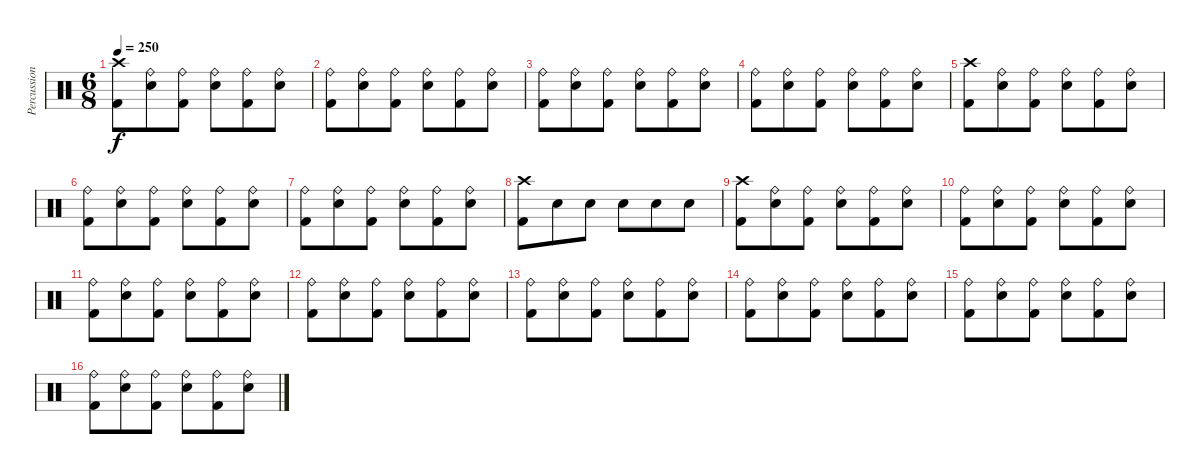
\track ("Percussion" "Percussion") {instrument percussion}
\staff {score}
\articulation defaults
\ts (6 8)
\tempo 250
\clef neutral
\ks c
("Crash high (hit)" "Kick (hit) 2").8{dy f} ("Ride (bell)" "Electric Snare (hit)").8 ("Ride (bell)" "Kick (hit) 2").8 ("Ride (bell)" "Electric Snare (hit)").8 ("Ride (bell)" "Kick (hit) 2").8 ("Ride (bell)" "Electric Snare (hit)").8 |
("Ride (bell)" "Kick (hit) 2").8 ("Ride (bell)" "Electric Snare (hit)").8 ("Ride (bell)" "Kick (hit) 2").8 ("Ride (bell)" "Electric Snare (hit)").8 ("Ride (bell)" "Kick (hit) 2").8 ("Ride (bell)" "Electric Snare (hit)").8 |
("Ride (bell)" "Kick (hit) 2").8 ("Ride (bell)" "Electric Snare (hit)").8 ("Ride (bell)" "Kick (hit) 2").8 ("Ride (bell)" "Electric Snare (hit)").8 ("Ride (bell)" "Kick (hit) 2").8 ("Ride (bell)" "Electric Snare (hit)").8 |
("Ride (bell)" "Kick (hit) 2").8 ("Ride (bell)" "Electric Snare (hit)").8 ("Ride (bell)" "Kick (hit) 2").8 ("Ride (bell)" "Electric Snare (hit)").8 ("Ride (bell)" "Kick (hit) 2").8 ("Ride (bell)" "Electric Snare (hit)").8 |
("Crash high (hit)" "Kick (hit) 2").8 ("Ride (bell)" "Electric Snare (hit)").8 ("Ride (bell)" "Kick (hit) 2").8 ("Ride (bell)" "Electric Snare (hit)").8 ("Ride (bell)" "Kick (hit) 2").8 ("Ride (bell)" "Electric Snare (hit)").8 |
("Ride (bell)" "Kick (hit) 2").8 ("Ride (bell)" "Electric Snare (hit)").8 ("Ride (bell)" "Kick (hit) 2").8 ("Ride (bell)" "Electric Snare (hit)").8 ("Ride (bell)" "Kick (hit) 2").8 ("Ride (bell)" "Electric Snare (hit)").8 |
("Ride (bell)" "Kick (hit) 2").8 ("Ride (bell)" "Electric Snare (hit)").8 ("Ride (bell)" "Kick (hit) 2").8 ("Ride (bell)" "Electric Snare (hit)").8 ("Ride (bell)" "Kick (hit) 2").8 ("Ride (bell)" "Electric Snare (hit)").8 |
("Crash high (hit)" "Kick (hit) 2").8 "Electric Snare (hit)".8 "Electric Snare (hit)".8 "Electric Snare (hit)".8 "Electric Snare (hit)".8 "Electric Snare (hit)".8 |
("Crash high (hit)" "Kick (hit) 2").8 ("Ride (bell)" "Electric Snare (hit)").8 ("Ride (bell)" "Kick (hit) 2").8 ("Ride (bell)" "Electric Snare (hit)").8 ("Ride (bell)" "Kick (hit) 2").8 ("Ride (bell)" "Electric Snare (hit)").8 |
("Ride (bell)" "Kick (hit) 2").8 ("Ride (bell)" "Electric Snare (hit)").8 ("Ride (bell)" "Kick (hit) 2").8 ("Ride (bell)" "Electric Snare (hit)").8 ("Ride (bell)" "Kick (hit) 2").8 ("Ride (bell)" "Electric Snare (hit)").8 |
("Ride (bell)" "Kick (hit) 2").8 ("Ride (bell)" "Electric Snare (hit)").8 ("Ride (bell)" "Kick (hit) 2").8 ("Ride (bell)" "Electric Snare (hit)").8 ("Ride (bell)" "Kick (hit) 2").8 ("Ride (bell)" "Electric Snare (hit)").8 |
("Ride (bell)" "Kick (hit) 2").8 ("Ride (bell)" "Electric Snare (hit)").8 ("Ride (bell)" "Kick (hit) 2").8 ("Ride (bell)" "Electric Snare (hit)").8 ("Ride (bell)" "Kick (hit) 2").8 ("Ride (bell)" "Electric Snare (hit)").8 |
("Ride (bell)" "Kick (hit) 2").8 ("Ride (bell)" "Electric Snare (hit)").8 ("Ride (bell)" "Kick (hit) 2").8 ("Ride (bell)" "Electric Snare (hit)").8 ("Ride (bell)" "Kick (hit) 2").8 ("Ride (bell)" "Electric Snare (hit)").8 |
("Ride (bell)" "Kick (hit) 2").8 ("Ride (bell)" "Electric Snare (hit)").8 ("Ride (bell)" "Kick (hit) 2").8 ("Ride (bell)" "Electric Snare (hit)").8 ("Ride (bell)" "Kick (hit) 2").8 ("Ride (bell)" "Electric Snare (hit)").8 |
("Ride (bell)" "Kick (hit) 2").8 ("Ride (bell)" "Electric Snare (hit)").8 ("Ride (bell)" "Kick (hit) 2").8 ("Ride (bell)" "Electric Snare (hit)").8 ("Ride (bell)" "Kick (hit) 2").8 ("Ride (bell)" "Electric Snare (hit)").8 |
("Ride (bell)" "Kick (hit) 2").8 ("Ride (bell)" "Electric Snare (hit)").8 ("Ride (bell)" "Kick (hit) 2").8 ("Ride (bell)" "Electric Snare (hit)").8 ("Ride (bell)" "Kick (hit) 2").8 ("Ride (bell)" "Electric Snare (hit)").8
